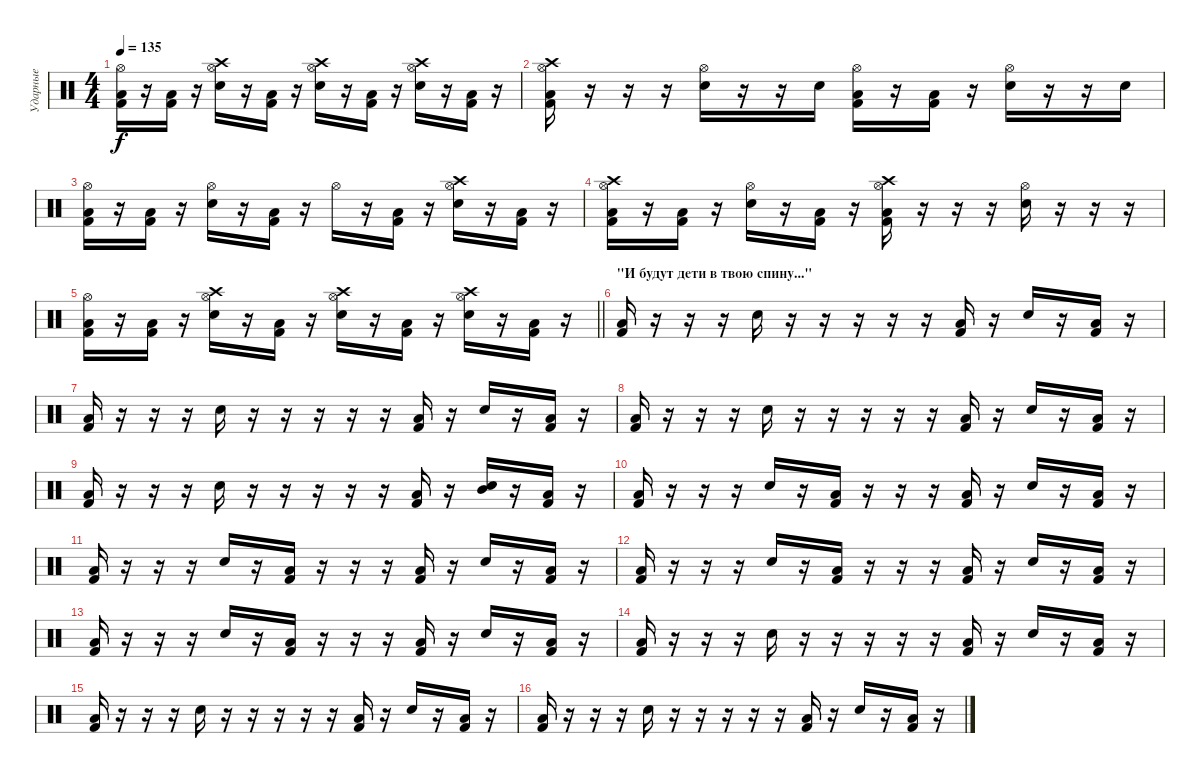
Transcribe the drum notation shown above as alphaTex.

\track ("Ударные" "Ударные") {instrument percussion}
\staff {score}
\articulation defaults
\ts (4 4)
\tempo 135
\clef neutral
\ks c
("Hi-Hat (open)" "Low Floor Tom (hit)" "Kick (hit) 2").16{dy f} r.16 ("Low Floor Tom (hit)" "Kick (hit) 2").16 r.16 ("Crash high (hit)" "Hi-Hat (open)" "Electric Snare (hit)").16 r.16 ("Low Floor Tom (hit)" "Kick (hit) 2").16 r.16 ("Crash high (hit)" "Hi-Hat (open)" "Electric Snare (hit)").16 r.16 ("Low Floor Tom (hit)" "Kick (hit) 2").16 r.16 ("Crash high (hit)" "Hi-Hat (open)" "Electric Snare (hit)").16 r.16 ("Low Floor Tom (hit)" "Kick (hit) 2").16 r.16 |
("Crash high (hit)" "Hi-Hat (open)" "Low Floor Tom (hit)" "Kick (hit) 2").16 r.16 r.16 r.16 ("Hi-Hat (open)" "Electric Snare (hit)").16 r.16 r.16 "Electric Snare (hit)".16 ("Hi-Hat (open)" "Low Floor Tom (hit)" "Kick (hit) 2").16 r.16 ("Low Floor Tom (hit)" "Kick (hit) 2").16 r.16 ("Hi-Hat (open)" "Electric Snare (hit)").16 r.16 r.16 "Electric Snare (hit)".16 |
("Hi-Hat (open)" "Low Floor Tom (hit)" "Kick (hit) 2").16 r.16 ("Low Floor Tom (hit)" "Kick (hit) 2").16 r.16 ("Hi-Hat (open)" "Electric Snare (hit)").16 r.16 ("Low Floor Tom (hit)" "Kick (hit) 2").16 r.16 "Hi-Hat (open)".16 r.16 ("Low Floor Tom (hit)" "Kick (hit) 2").16 r.16 ("Crash high (hit)" "Hi-Hat (open)" "Electric Snare (hit)").16 r.16 ("Low Floor Tom (hit)" "Kick (hit) 2").16 r.16 |
("Crash high (hit)" "Hi-Hat (open)" "Low Floor Tom (hit)" "Kick (hit) 2").16 r.16 ("Low Floor Tom (hit)" "Kick (hit) 2").16 r.16 ("Hi-Hat (open)" "Electric Snare (hit)").16 r.16 ("Low Floor Tom (hit)" "Kick (hit) 2").16 r.16 ("Crash high (hit)" "Hi-Hat (open)" "Low Floor Tom (hit)" "Kick (hit) 2").16 r.16 r.16 r.16 ("Hi-Hat (open)" "Electric Snare (hit)").16 r.16 r.16 r.16 |
\barLineRight lightlight
("Hi-Hat (open)" "Low Floor Tom (hit)" "Kick (hit) 2").16 r.16 ("Low Floor Tom (hit)" "Kick (hit) 2").16 r.16 ("Crash high (hit)" "Hi-Hat (open)" "Electric Snare (hit)").16 r.16 ("Low Floor Tom (hit)" "Kick (hit) 2").16 r.16 ("Crash high (hit)" "Hi-Hat (open)" "Electric Snare (hit)").16 r.16 ("Low Floor Tom (hit)" "Kick (hit) 2").16 r.16 ("Crash high (hit)" "Hi-Hat (open)" "Electric Snare (hit)").16 r.16 ("Low Floor Tom (hit)" "Kick (hit) 2").16 r.16 |
\section ("" "\"И будут дети в твою спину...\"")
("Low Floor Tom (hit)" "Kick (hit) 2").16 r.16 r.16 r.16 "Electric Snare (hit)".16 r.16 r.16 r.16 r.16 r.16 ("Low Floor Tom (hit)" "Kick (hit) 2").16 r.16 "Electric Snare (hit)".16 r.16 ("Low Floor Tom (hit)" "Kick (hit) 2").16 r.16 |
("Low Floor Tom (hit)" "Kick (hit) 2").16 r.16 r.16 r.16 "Electric Snare (hit)".16 r.16 r.16 r.16 r.16 r.16 ("Low Floor Tom (hit)" "Kick (hit) 2").16 r.16 "Electric Snare (hit)".16 r.16 ("Low Floor Tom (hit)" "Kick (hit) 2").16 r.16 |
("Low Floor Tom (hit)" "Kick (hit) 2").16 r.16 r.16 r.16 "Electric Snare (hit)".16 r.16 r.16 r.16 r.16 r.16 ("Low Floor Tom (hit)" "Kick (hit) 2").16 r.16 "Electric Snare (hit)".16 r.16 ("Low Floor Tom (hit)" "Kick (hit) 2").16 r.16 |
("Low Floor Tom (hit)" "Kick (hit) 2").16 r.16 r.16 r.16 "Electric Snare (hit)".16 r.16 r.16 r.16 r.16 r.16 ("Low Floor Tom (hit)" "Kick (hit) 2").16 r.16 ("Electric Snare (hit)" "Mid Tom (hit)").16 r.16 ("Low Floor Tom (hit)" "Kick (hit) 2").16 r.16 |
("Low Floor Tom (hit)" "Kick (hit) 2").16 r.16 r.16 r.16 "Electric Snare (hit)".16 r.16 ("Low Floor Tom (hit)" "Kick (hit) 2").16 r.16 r.16 r.16 ("Low Floor Tom (hit)" "Kick (hit) 2").16 r.16 "Electric Snare (hit)".16 r.16 ("Low Floor Tom (hit)" "Kick (hit) 2").16 r.16 |
("Low Floor Tom (hit)" "Kick (hit) 2").16 r.16 r.16 r.16 "Electric Snare (hit)".16 r.16 ("Low Floor Tom (hit)" "Kick (hit) 2").16 r.16 r.16 r.16 ("Low Floor Tom (hit)" "Kick (hit) 2").16 r.16 "Electric Snare (hit)".16 r.16 ("Low Floor Tom (hit)" "Kick (hit) 2").16 r.16 |
("Low Floor Tom (hit)" "Kick (hit) 2").16 r.16 r.16 r.16 "Electric Snare (hit)".16 r.16 ("Low Floor Tom (hit)" "Kick (hit) 2").16 r.16 r.16 r.16 ("Low Floor Tom (hit)" "Kick (hit) 2").16 r.16 "Electric Snare (hit)".16 r.16 ("Low Floor Tom (hit)" "Kick (hit) 2").16 r.16 |
("Low Floor Tom (hit)" "Kick (hit) 2").16 r.16 r.16 r.16 "Electric Snare (hit)".16 r.16 ("Low Floor Tom (hit)" "Kick (hit) 2").16 r.16 r.16 r.16 ("Low Floor Tom (hit)" "Kick (hit) 2").16 r.16 "Electric Snare (hit)".16 r.16 ("Low Floor Tom (hit)" "Kick (hit) 2").16 r.16 |
("Low Floor Tom (hit)" "Kick (hit) 2").16 r.16 r.16 r.16 "Electric Snare (hit)".16 r.16 r.16 r.16 r.16 r.16 ("Low Floor Tom (hit)" "Kick (hit) 2").16 r.16 "Electric Snare (hit)".16 r.16 ("Low Floor Tom (hit)" "Kick (hit) 2").16 r.16 |
("Low Floor Tom (hit)" "Kick (hit) 2").16 r.16 r.16 r.16 "Electric Snare (hit)".16 r.16 r.16 r.16 r.16 r.16 ("Low Floor Tom (hit)" "Kick (hit) 2").16 r.16 "Electric Snare (hit)".16 r.16 ("Low Floor Tom (hit)" "Kick (hit) 2").16 r.16 |
("Low Floor Tom (hit)" "Kick (hit) 2").16 r.16 r.16 r.16 "Electric Snare (hit)".16 r.16 r.16 r.16 r.16 r.16 ("Low Floor Tom (hit)" "Kick (hit) 2").16 r.16 "Electric Snare (hit)".16 r.16 ("Low Floor Tom (hit)" "Kick (hit) 2").16 r.16
